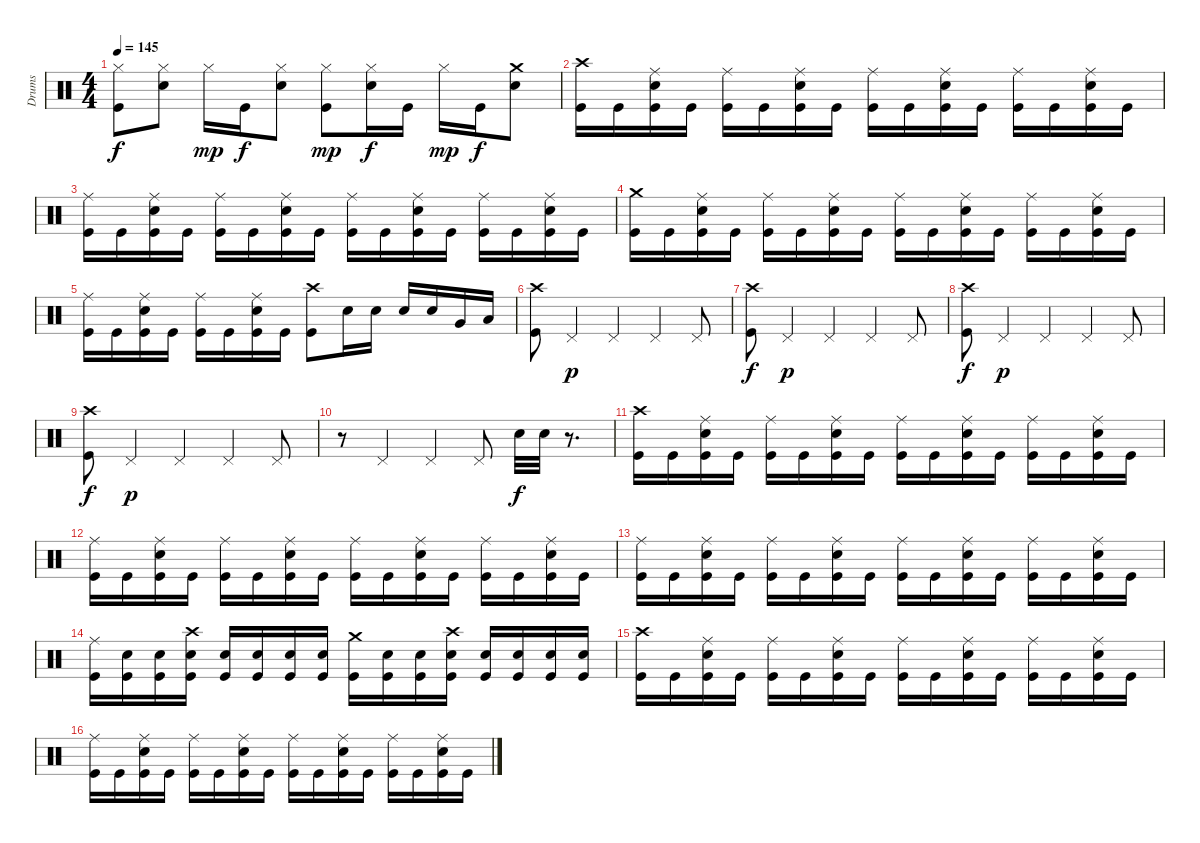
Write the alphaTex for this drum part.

\track ("Drums" "Drums") {instrument percussion}
\staff {score}
\articulation defaults
\ts (4 4)
\tempo 145
\clef neutral
\ks c
("Hi-Hat (closed)" "Kick (hit)").8{dy f} ("Hi-Hat (closed)" "Snare (hit) 2").8 "Hi-Hat (closed)".16{dy mp} "Kick (hit)".16{dy f} ("Hi-Hat (closed)" "Snare (hit) 2").8 ("Hi-Hat (closed)" "Kick (hit)").8{dy mp} ("Hi-Hat (closed)" "Snare (hit) 2").16{dy f} "Kick (hit)".16 "Hi-Hat (closed)".16{dy mp} "Kick (hit)".16{dy f} ("Crash medium (hit)" "Snare (hit) 2").8 |
("Crash high (hit)" "Kick (hit)").16 "Kick (hit)".16 ("Ride (middle)" "Snare (hit) 2" "Kick (hit)").16 "Kick (hit)".16 ("Ride (middle)" "Kick (hit)").16 "Kick (hit)".16 ("Ride (middle)" "Snare (hit) 2" "Kick (hit)").16 "Kick (hit)".16 ("Ride (middle)" "Kick (hit)").16 "Kick (hit)".16 ("Ride (middle)" "Snare (hit) 2" "Kick (hit)").16 "Kick (hit)".16 ("Ride (middle)" "Kick (hit)").16 "Kick (hit)".16 ("Ride (middle)" "Snare (hit) 2" "Kick (hit)").16 "Kick (hit)".16 |
("Ride (middle)" "Kick (hit)").16 "Kick (hit)".16 ("Ride (middle)" "Snare (hit) 2" "Kick (hit)").16 "Kick (hit)".16 ("Ride (middle)" "Kick (hit)").16 "Kick (hit)".16 ("Ride (middle)" "Snare (hit) 2" "Kick (hit)").16 "Kick (hit)".16 ("Ride (middle)" "Kick (hit)").16 "Kick (hit)".16 ("Ride (middle)" "Snare (hit) 2" "Kick (hit)").16 "Kick (hit)".16 ("Ride (middle)" "Kick (hit)").16 "Kick (hit)".16 ("Ride (middle)" "Snare (hit) 2" "Kick (hit)").16 "Kick (hit)".16 |
("Crash medium (hit)" "Kick (hit)").16 "Kick (hit)".16 ("Ride (middle)" "Snare (hit) 2" "Kick (hit)").16 "Kick (hit)".16 ("Ride (middle)" "Kick (hit)").16 "Kick (hit)".16 ("Ride (middle)" "Snare (hit) 2" "Kick (hit)").16 "Kick (hit)".16 ("Ride (middle)" "Kick (hit)").16 "Kick (hit)".16 ("Ride (middle)" "Snare (hit) 2" "Kick (hit)").16 "Kick (hit)".16 ("Ride (middle)" "Kick (hit)").16 "Kick (hit)".16 ("Ride (middle)" "Snare (hit) 2" "Kick (hit)").16 "Kick (hit)".16 |
("Ride (middle)" "Kick (hit)").16 "Kick (hit)".16 ("Ride (middle)" "Snare (hit) 2" "Kick (hit)").16 "Kick (hit)".16 ("Ride (middle)" "Kick (hit)").16 "Kick (hit)".16 ("Ride (middle)" "Snare (hit) 2" "Kick (hit)").16 "Kick (hit)".16 ("Crash high (hit)" "Kick (hit)").8 "Snare (hit) 2".16 "Snare (hit) 2".16 "Snare (hit) 2".16 "Snare (hit) 2".16 "Very Low Tom (hit)".16 "Low Floor Tom (hit)".16 |
("Crash high (hit)" "Kick (hit)").8 "Pedal Hi-Hat (hit)".4{dy p} "Pedal Hi-Hat (hit)".4 "Pedal Hi-Hat (hit)".4 "Pedal Hi-Hat (hit)".8 |
("Crash high (hit)" "Kick (hit)").8{dy f} "Pedal Hi-Hat (hit)".4{dy p} "Pedal Hi-Hat (hit)".4 "Pedal Hi-Hat (hit)".4 "Pedal Hi-Hat (hit)".8 |
("Crash high (hit)" "Kick (hit)").8{dy f} "Pedal Hi-Hat (hit)".4{dy p} "Pedal Hi-Hat (hit)".4 "Pedal Hi-Hat (hit)".4 "Pedal Hi-Hat (hit)".8 |
("Crash high (hit)" "Kick (hit)").8{dy f} "Pedal Hi-Hat (hit)".4{dy p} "Pedal Hi-Hat (hit)".4 "Pedal Hi-Hat (hit)".4 "Pedal Hi-Hat (hit)".8 |
r.8 "Pedal Hi-Hat (hit)".4 "Pedal Hi-Hat (hit)".4 "Pedal Hi-Hat (hit)".8 "Snare (hit) 2".32{dy f} "Snare (hit) 2".32 r.8{d} |
("Crash high (hit)" "Kick (hit)").16 "Kick (hit)".16 ("Ride (middle)" "Snare (hit) 2" "Kick (hit)").16 "Kick (hit)".16 ("Ride (middle)" "Kick (hit)").16 "Kick (hit)".16 ("Ride (middle)" "Snare (hit) 2" "Kick (hit)").16 "Kick (hit)".16 ("Ride (middle)" "Kick (hit)").16 "Kick (hit)".16 ("Ride (middle)" "Snare (hit) 2" "Kick (hit)").16 "Kick (hit)".16 ("Ride (middle)" "Kick (hit)").16 "Kick (hit)".16 ("Ride (middle)" "Snare (hit) 2" "Kick (hit)").16 "Kick (hit)".16 |
("Ride (middle)" "Kick (hit)").16 "Kick (hit)".16 ("Ride (middle)" "Snare (hit) 2" "Kick (hit)").16 "Kick (hit)".16 ("Ride (middle)" "Kick (hit)").16 "Kick (hit)".16 ("Ride (middle)" "Snare (hit) 2" "Kick (hit)").16 "Kick (hit)".16 ("Ride (middle)" "Kick (hit)").16 "Kick (hit)".16 ("Ride (middle)" "Snare (hit) 2" "Kick (hit)").16 "Kick (hit)".16 ("Ride (middle)" "Kick (hit)").16 "Kick (hit)".16 ("Ride (middle)" "Snare (hit) 2" "Kick (hit)").16 "Kick (hit)".16 |
("Ride (middle)" "Kick (hit)").16 "Kick (hit)".16 ("Ride (middle)" "Snare (hit) 2" "Kick (hit)").16 "Kick (hit)".16 ("Ride (middle)" "Kick (hit)").16 "Kick (hit)".16 ("Ride (middle)" "Snare (hit) 2" "Kick (hit)").16 "Kick (hit)".16 ("Ride (middle)" "Kick (hit)").16 "Kick (hit)".16 ("Ride (middle)" "Snare (hit) 2" "Kick (hit)").16 "Kick (hit)".16 ("Ride (middle)" "Kick (hit)").16 "Kick (hit)".16 ("Ride (middle)" "Snare (hit) 2" "Kick (hit)").16 "Kick (hit)".16 |
("Ride (middle)" "Kick (hit)").16 ("Snare (hit) 2" "Kick (hit)").16 ("Snare (hit) 2" "Kick (hit)").16 ("Crash high (hit)" "Snare (hit) 2" "Kick (hit)").16 ("Snare (hit) 2" "Kick (hit)").16 ("Snare (hit) 2" "Kick (hit)").16 ("Snare (hit) 2" "Kick (hit)").16 ("Snare (hit) 2" "Kick (hit)").16 ("Crash medium (hit)" "Kick (hit)").16 ("Snare (hit) 2" "Kick (hit)").16 ("Snare (hit) 2" "Kick (hit)").16 ("Crash high (hit)" "Snare (hit) 2" "Kick (hit)").16 ("Snare (hit) 2" "Kick (hit)").16 ("Snare (hit) 2" "Kick (hit)").16 ("Snare (hit) 2" "Kick (hit)").16 ("Snare (hit) 2" "Kick (hit)").16 |
("Crash high (hit)" "Kick (hit)").16 "Kick (hit)".16 ("Ride (middle)" "Snare (hit) 2" "Kick (hit)").16 "Kick (hit)".16 ("Ride (middle)" "Kick (hit)").16 "Kick (hit)".16 ("Ride (middle)" "Snare (hit) 2" "Kick (hit)").16 "Kick (hit)".16 ("Ride (middle)" "Kick (hit)").16 "Kick (hit)".16 ("Ride (middle)" "Snare (hit) 2" "Kick (hit)").16 "Kick (hit)".16 ("Ride (middle)" "Kick (hit)").16 "Kick (hit)".16 ("Ride (middle)" "Snare (hit) 2" "Kick (hit)").16 "Kick (hit)".16 |
("Ride (middle)" "Kick (hit)").16 "Kick (hit)".16 ("Ride (middle)" "Snare (hit) 2" "Kick (hit)").16 "Kick (hit)".16 ("Ride (middle)" "Kick (hit)").16 "Kick (hit)".16 ("Ride (middle)" "Snare (hit) 2" "Kick (hit)").16 "Kick (hit)".16 ("Ride (middle)" "Kick (hit)").16 "Kick (hit)".16 ("Ride (middle)" "Snare (hit) 2" "Kick (hit)").16 "Kick (hit)".16 ("Ride (middle)" "Kick (hit)").16 "Kick (hit)".16 ("Ride (middle)" "Snare (hit) 2" "Kick (hit)").16 "Kick (hit)".16
